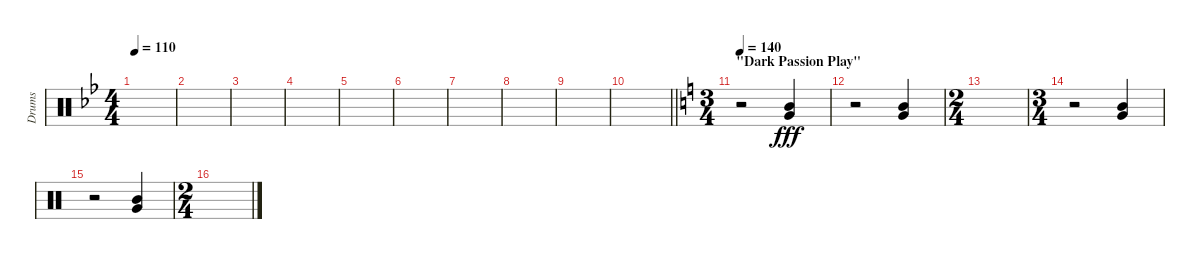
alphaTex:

\track ("Drums" "Drums") {instrument percussion}
\staff {score}
\articulation defaults
\ts (4 4)
\tempo 110
\clef neutral
\ks gminor
|
|
|
|
|
|
|
|
|
\barLineRight lightlight
|
\ts (3 4)
\section ("" "\"Dark Passion Play\"")
\tempo 140
\ks aminor
r.2 ("Mid Tom (hit)" "Very Low Tom (hit)").4{dy fff} |
r.2 ("Mid Tom (hit)" "Very Low Tom (hit)").4 |
\ts (2 4)
|
\ts (3 4)
r.2 ("Mid Tom (hit)" "Very Low Tom (hit)").4 |
r.2 ("Mid Tom (hit)" "Very Low Tom (hit)").4 |
\ts (2 4)
